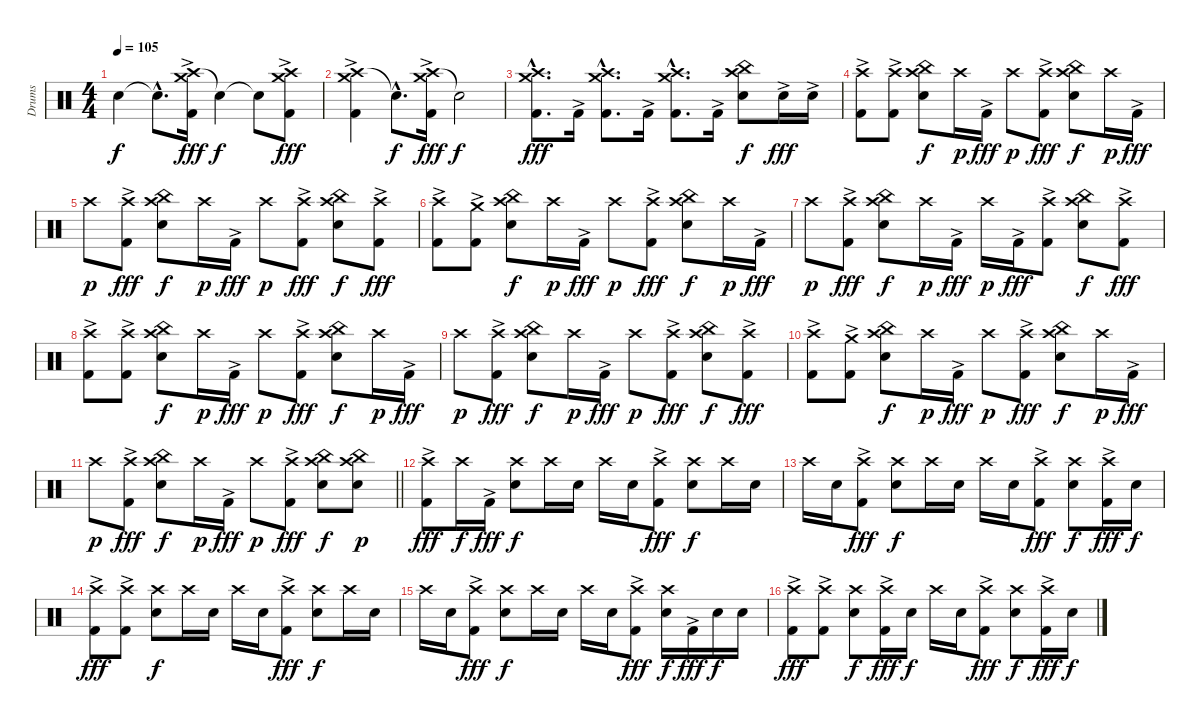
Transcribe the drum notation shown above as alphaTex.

\track ("Drums" "Drums") {instrument percussion}
\staff {score}
\articulation defaults
\ts (4 4)
\tempo 105
\clef neutral
\ks aminor "Snare (hit)"{t}.4{dy f} "Snare (hit)"{hac t}.8{d}
("Crash high (hit)" "Crash medium (hit)" "Kick (hit) 2"{ac}).16{dy fff} "Snare (hit)"{t}.4{dy f} "Snare (hit)"{t}.8 ("Crash high (hit)" "Crash medium (hit)" "Kick (hit) 2"{ac}).8{dy fff} |
("Crash high (hit)" "Crash medium (hit)" "Kick (hit) 2"{ac}).4 "Snare (hit)"{hac t}.8{d dy f} ("Crash high (hit)" "Crash medium (hit)" "Kick (hit) 2"{ac}).16{dy fff} "Snare (hit)"{t}.2{dy f} |
("Crash high (hit)"{hac} "Crash medium (hit)"{hac} "Kick (hit) 2"{hac}).8{d dy fff} "Kick (hit) 2"{ac}.16 ("Crash high (hit)"{hac} "Crash medium (hit)"{hac} "Kick (hit) 2"{hac}).8{d} "Kick (hit) 2"{ac}.16 ("Crash high (hit)"{hac} "Crash medium (hit)"{hac} "Kick (hit) 2"{hac}).8{d} "Kick (hit) 2"{ac}.16 ("Crash high (hit)" "China (hit)" "Snare (hit) 2").8{dy f} "Snare (hit) 2"{ac}.16{dy fff} "Snare (hit) 2"{ac}.16 |
("Crash high (hit)" "Kick (hit) 2"{ac}).8 ("Crash high (hit)" "Kick (hit) 2"{ac}).8 ("Crash high (hit)" "China (hit)" "Snare (hit) 2").8{dy f} "Crash high (hit)".16{dy p} "Kick (hit) 2"{ac}.16{dy fff} "Crash high (hit)".8{dy p} ("Crash high (hit)" "Kick (hit) 2"{ac}).8{dy fff} ("Crash high (hit)" "China (hit)" "Snare (hit) 2").8{dy f} "Crash high (hit)".16{dy p} "Kick (hit) 2"{ac}.16{dy fff} |
"Crash high (hit)".8{dy p} ("Crash high (hit)" "Kick (hit) 2"{ac}).8{dy fff} ("Crash high (hit)" "China (hit)" "Snare (hit) 2").8{dy f} "Crash high (hit)".16{dy p} "Kick (hit) 2"{ac}.16{dy fff} "Crash high (hit)".8{dy p} ("Crash high (hit)" "Kick (hit) 2"{ac}).8{dy fff} ("Crash high (hit)" "China (hit)" "Snare (hit) 2").8{dy f} ("Crash high (hit)" "Kick (hit) 2"{ac}).8{dy fff} |
("Crash high (hit)" "Kick (hit) 2"{ac}).8 ("Crash medium (hit)" "Kick (hit) 2"{ac}).8 ("Crash high (hit)" "China (hit)" "Snare (hit) 2").8{dy f} "Crash high (hit)".16{dy p} "Kick (hit) 2"{ac}.16{dy fff} "Crash high (hit)".8{dy p} ("Crash high (hit)" "Kick (hit) 2"{ac}).8{dy fff} ("Crash high (hit)" "China (hit)" "Snare (hit) 2").8{dy f} "Crash high (hit)".16{dy p} "Kick (hit) 2"{ac}.16{dy fff} |
"Crash high (hit)".8{dy p} ("Crash high (hit)" "Kick (hit) 2"{ac}).8{dy fff} ("Crash high (hit)" "China (hit)" "Snare (hit) 2").8{dy f} "Crash high (hit)".16{dy p} "Kick (hit) 2"{ac}.16{dy fff} "Crash high (hit)".16{dy p} "Kick (hit) 2"{ac}.16{dy fff} ("Crash high (hit)" "Kick (hit) 2"{ac}).8 ("Crash high (hit)" "China (hit)" "Snare (hit) 2").8{dy f} ("Crash high (hit)" "Kick (hit) 2"{ac}).8{dy fff} |
("Crash high (hit)" "Kick (hit) 2"{ac}).8 ("Crash high (hit)" "Kick (hit) 2"{ac}).8 ("Crash high (hit)" "China (hit)" "Snare (hit) 2").8{dy f} "Crash high (hit)".16{dy p} "Kick (hit) 2"{ac}.16{dy fff} "Crash high (hit)".8{dy p} ("Crash high (hit)" "Kick (hit) 2"{ac}).8{dy fff} ("Crash high (hit)" "China (hit)" "Snare (hit) 2").8{dy f} "Crash high (hit)".16{dy p} "Kick (hit) 2"{ac}.16{dy fff} |
"Crash high (hit)".8{dy p} ("Crash high (hit)" "Kick (hit) 2"{ac}).8{dy fff} ("Crash high (hit)" "China (hit)" "Snare (hit) 2").8{dy f} "Crash high (hit)".16{dy p} "Kick (hit) 2"{ac}.16{dy fff} "Crash high (hit)".8{dy p} ("Crash high (hit)" "Kick (hit) 2"{ac}).8{dy fff} ("Crash high (hit)" "China (hit)" "Snare (hit) 2").8{dy f} ("Crash high (hit)" "Kick (hit) 2"{ac}).8{dy fff} |
("Crash high (hit)" "Kick (hit) 2"{ac}).8 ("Crash medium (hit)" "Kick (hit) 2"{ac}).8 ("Crash high (hit)" "China (hit)" "Snare (hit) 2").8{dy f} "Crash high (hit)".16{dy p} "Kick (hit) 2"{ac}.16{dy fff} "Crash high (hit)".8{dy p} ("Crash high (hit)" "Kick (hit) 2"{ac}).8{dy fff} ("Crash high (hit)" "China (hit)" "Snare (hit) 2").8{dy f} "Crash high (hit)".16{dy p} "Kick (hit) 2"{ac}.16{dy fff} |
\barLineRight lightlight "Crash high (hit)".8{dy p}
("Crash high (hit)" "Kick (hit) 2"{ac}).8{dy fff} ("Crash high (hit)" "China (hit)" "Snare (hit) 2").8{dy f} "Crash high (hit)".16{dy p} "Kick (hit) 2"{ac}.16{dy fff} "Crash high (hit)".8{dy p} ("Crash high (hit)" "Kick (hit) 2"{ac}).8{dy fff} ("Crash high (hit)" "China (hit)" "Snare (hit) 2").8{dy f} ("Crash high (hit)" "China (hit)" "Snare (hit) 2").8{dy p} |
("Crash high (hit)" "Kick (hit) 2"{ac}).8{dy fff} "Crash high (hit)".16{dy f} "Kick (hit) 2"{ac}.16{dy fff} ("Crash high (hit)" "Snare (hit) 2").8{dy f} "Crash high (hit)".16 "Snare (hit) 2".16 "Crash high (hit)".16 "Snare (hit) 2".16 ("Crash high (hit)" "Kick (hit) 2"{ac}).8{dy fff} ("Crash high (hit)" "Snare (hit) 2").8{dy f} "Crash high (hit)".16 "Snare (hit) 2".16 |
"Crash high (hit)".16 "Snare (hit) 2".16 ("Crash high (hit)" "Kick (hit) 2"{ac}).8{dy fff} ("Crash high (hit)" "Snare (hit) 2").8{dy f} "Crash high (hit)".16 "Snare (hit) 2".16 "Crash high (hit)".16 "Snare (hit) 2".16 ("Crash high (hit)" "Kick (hit) 2"{ac}).8{dy fff} ("Crash high (hit)" "Snare (hit) 2").8{dy f} ("Crash high (hit)" "Kick (hit) 2"{ac}).16{dy fff} "Snare (hit) 2".16{dy f} |
("Crash high (hit)" "Kick (hit) 2"{ac}).8{dy fff} ("Crash high (hit)" "Kick (hit) 2"{ac}).8 ("Crash high (hit)" "Snare (hit) 2").8{dy f} "Crash high (hit)".16 "Snare (hit) 2".16 "Crash high (hit)".16 "Snare (hit) 2".16 ("Crash high (hit)" "Kick (hit) 2"{ac}).8{dy fff} ("Crash high (hit)" "Snare (hit) 2").8{dy f} "Crash high (hit)".16 "Snare (hit) 2".16 |
"Crash high (hit)".16 "Snare (hit) 2".16 ("Crash high (hit)" "Kick (hit) 2"{ac}).8{dy fff} ("Crash high (hit)" "Snare (hit) 2").8{dy f} "Crash high (hit)".16 "Snare (hit) 2".16 "Crash high (hit)".16 "Snare (hit) 2".16 ("Crash high (hit)" "Kick (hit) 2"{ac}).8{dy fff} ("Crash high (hit)" "Snare (hit) 2").16{dy f} "Kick (hit) 2"{ac}.16{dy fff} "Snare (hit) 2".16{dy f} "Snare (hit) 2".16 |
("Crash high (hit)" "Kick (hit) 2"{ac}).8{dy fff} ("Crash high (hit)" "Kick (hit) 2"{ac}).8 ("Crash high (hit)" "Snare (hit) 2").8{dy f} ("Crash high (hit)" "Kick (hit) 2"{ac}).16{dy fff} "Snare (hit) 2".16{dy f} "Crash high (hit)".16 "Snare (hit) 2".16 ("Crash high (hit)" "Kick (hit) 2"{ac}).8{dy fff} ("Crash high (hit)" "Snare (hit) 2").8{dy f} ("Crash high (hit)" "Kick (hit) 2"{ac}).16{dy fff} "Snare (hit) 2".16{dy f}
